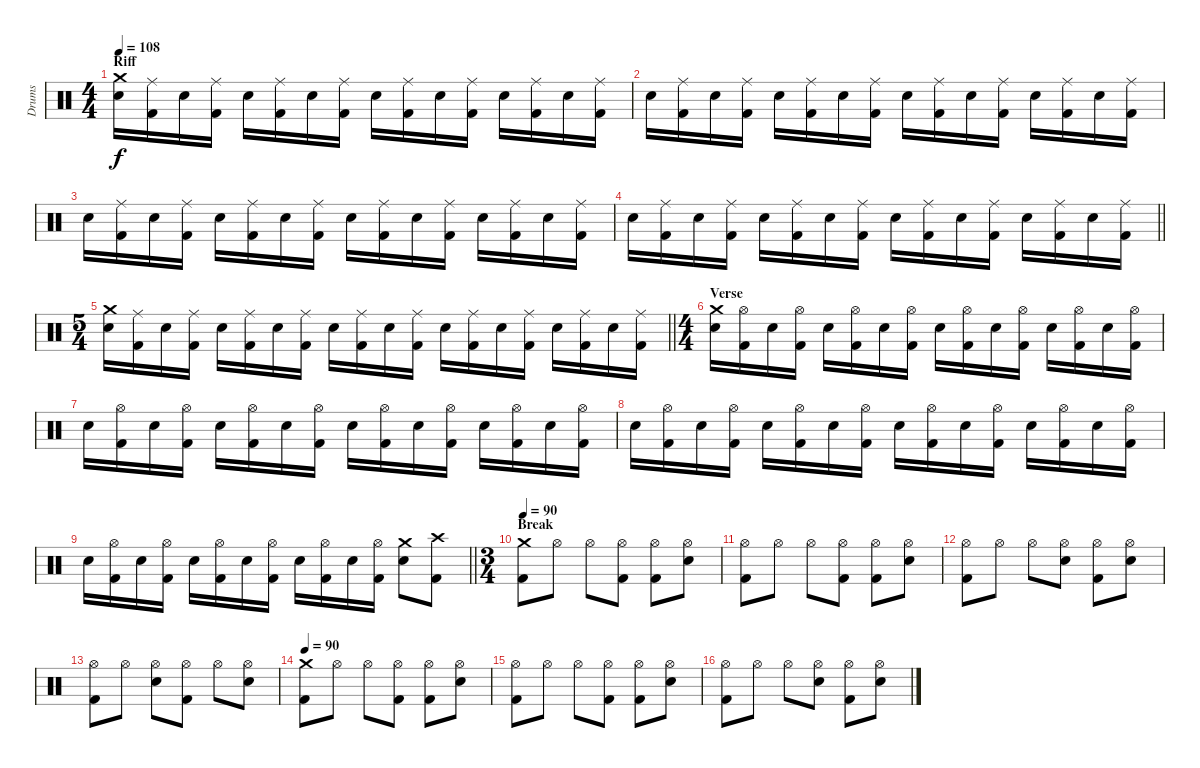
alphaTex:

\track ("Drums" "Drums") {instrument percussion}
\staff {score}
\articulation defaults
\ts (4 4)
\section ("" "Riff")
\tempo 108
\clef neutral
\ks c
("Crash medium (hit)" "Electric Snare (hit)").16{dy f} ("Ride (middle)" "Kick (hit) 2").16 "Electric Snare (hit)".16 ("Ride (middle)" "Kick (hit) 2").16 "Electric Snare (hit)".16 ("Ride (middle)" "Kick (hit) 2").16 "Electric Snare (hit)".16 ("Ride (middle)" "Kick (hit) 2").16 "Electric Snare (hit)".16 ("Ride (middle)" "Kick (hit) 2").16 "Electric Snare (hit)".16 ("Ride (middle)" "Kick (hit) 2").16 "Electric Snare (hit)".16 ("Ride (middle)" "Kick (hit) 2").16 "Electric Snare (hit)".16 ("Ride (middle)" "Kick (hit) 2").16 |
"Electric Snare (hit)".16 ("Ride (middle)" "Kick (hit) 2").16 "Electric Snare (hit)".16 ("Ride (middle)" "Kick (hit) 2").16 "Electric Snare (hit)".16 ("Ride (middle)" "Kick (hit) 2").16 "Electric Snare (hit)".16 ("Ride (middle)" "Kick (hit) 2").16 "Electric Snare (hit)".16 ("Ride (middle)" "Kick (hit) 2").16 "Electric Snare (hit)".16 ("Ride (middle)" "Kick (hit) 2").16 "Electric Snare (hit)".16 ("Ride (middle)" "Kick (hit) 2").16 "Electric Snare (hit)".16 ("Ride (middle)" "Kick (hit) 2").16 |
"Electric Snare (hit)".16 ("Ride (middle)" "Kick (hit) 2").16 "Electric Snare (hit)".16 ("Ride (middle)" "Kick (hit) 2").16 "Electric Snare (hit)".16 ("Ride (middle)" "Kick (hit) 2").16 "Electric Snare (hit)".16 ("Ride (middle)" "Kick (hit) 2").16 "Electric Snare (hit)".16 ("Ride (middle)" "Kick (hit) 2").16 "Electric Snare (hit)".16 ("Ride (middle)" "Kick (hit) 2").16 "Electric Snare (hit)".16 ("Ride (middle)" "Kick (hit) 2").16 "Electric Snare (hit)".16 ("Ride (middle)" "Kick (hit) 2").16 |
\barLineRight lightlight "Electric Snare (hit)".16
("Ride (middle)" "Kick (hit) 2").16 "Electric Snare (hit)".16 ("Ride (middle)" "Kick (hit) 2").16 "Electric Snare (hit)".16 ("Ride (middle)" "Kick (hit) 2").16 "Electric Snare (hit)".16 ("Ride (middle)" "Kick (hit) 2").16 "Electric Snare (hit)".16 ("Ride (middle)" "Kick (hit) 2").16 "Electric Snare (hit)".16 ("Ride (middle)" "Kick (hit) 2").16 "Electric Snare (hit)".16 ("Ride (middle)" "Kick (hit) 2").16 "Electric Snare (hit)".16 ("Ride (middle)" "Kick (hit) 2").16 |
\ts (5 4)
\barLineRight lightlight
("Crash medium (hit)" "Electric Snare (hit)").16 ("Ride (middle)" "Kick (hit) 2").16 "Electric Snare (hit)".16 ("Ride (middle)" "Kick (hit) 2").16 "Electric Snare (hit)".16 ("Ride (middle)" "Kick (hit) 2").16 "Electric Snare (hit)".16 ("Ride (middle)" "Kick (hit) 2").16 "Electric Snare (hit)".16 ("Ride (middle)" "Kick (hit) 2").16 "Electric Snare (hit)".16 ("Ride (middle)" "Kick (hit) 2").16 "Electric Snare (hit)".16 ("Ride (middle)" "Kick (hit) 2").16 "Electric Snare (hit)".16 ("Ride (middle)" "Kick (hit) 2").16 "Electric Snare (hit)".16 ("Ride (middle)" "Kick (hit) 2").16 "Electric Snare (hit)".16 ("Ride (middle)" "Kick (hit) 2").16 |
\ts (4 4)
\section ("" "Verse")
("Crash medium (hit)" "Electric Snare (hit)").16 ("Hi-Hat (open)" "Kick (hit) 2").16 "Electric Snare (hit)".16 ("Hi-Hat (open)" "Kick (hit) 2").16 "Electric Snare (hit)".16 ("Hi-Hat (open)" "Kick (hit) 2").16 "Electric Snare (hit)".16 ("Hi-Hat (open)" "Kick (hit) 2").16 "Electric Snare (hit)".16 ("Hi-Hat (open)" "Kick (hit) 2").16 "Electric Snare (hit)".16 ("Hi-Hat (open)" "Kick (hit) 2").16 "Electric Snare (hit)".16 ("Hi-Hat (open)" "Kick (hit) 2").16 "Electric Snare (hit)".16 ("Hi-Hat (open)" "Kick (hit) 2").16 |
"Electric Snare (hit)".16 ("Hi-Hat (open)" "Kick (hit) 2").16 "Electric Snare (hit)".16 ("Hi-Hat (open)" "Kick (hit) 2").16 "Electric Snare (hit)".16 ("Hi-Hat (open)" "Kick (hit) 2").16 "Electric Snare (hit)".16 ("Hi-Hat (open)" "Kick (hit) 2").16 "Electric Snare (hit)".16 ("Hi-Hat (open)" "Kick (hit) 2").16 "Electric Snare (hit)".16 ("Hi-Hat (open)" "Kick (hit) 2").16 "Electric Snare (hit)".16 ("Hi-Hat (open)" "Kick (hit) 2").16 "Electric Snare (hit)".16 ("Hi-Hat (open)" "Kick (hit) 2").16 |
"Electric Snare (hit)".16 ("Hi-Hat (open)" "Kick (hit) 2").16 "Electric Snare (hit)".16 ("Hi-Hat (open)" "Kick (hit) 2").16 "Electric Snare (hit)".16 ("Hi-Hat (open)" "Kick (hit) 2").16 "Electric Snare (hit)".16 ("Hi-Hat (open)" "Kick (hit) 2").16 "Electric Snare (hit)".16 ("Hi-Hat (open)" "Kick (hit) 2").16 "Electric Snare (hit)".16 ("Hi-Hat (open)" "Kick (hit) 2").16 "Electric Snare (hit)".16 ("Hi-Hat (open)" "Kick (hit) 2").16 "Electric Snare (hit)".16 ("Hi-Hat (open)" "Kick (hit) 2").16 |
\barLineRight lightlight "Electric Snare (hit)".16
("Hi-Hat (open)" "Kick (hit) 2").16 "Electric Snare (hit)".16 ("Hi-Hat (open)" "Kick (hit) 2").16 "Electric Snare (hit)".16 ("Hi-Hat (open)" "Kick (hit) 2").16 "Electric Snare (hit)".16 ("Hi-Hat (open)" "Kick (hit) 2").16 "Electric Snare (hit)".16 ("Hi-Hat (open)" "Kick (hit) 2").16 "Electric Snare (hit)".16 ("Hi-Hat (open)" "Kick (hit) 2").16 ("Crash medium (hit)" "Electric Snare (hit)").8 ("Crash high (hit)" "Kick (hit) 2").8 |
\ts (3 4)
\section ("" "Break")
\tempo 90
("Crash medium (hit)" "Kick (hit) 2").8 "Hi-Hat (open)".8 "Hi-Hat (open)".8 ("Hi-Hat (open)" "Kick (hit) 2").8 ("Hi-Hat (open)" "Kick (hit) 2").8 ("Hi-Hat (open)" "Electric Snare (hit)").8 |
("Hi-Hat (open)" "Kick (hit) 2").8 "Hi-Hat (open)".8 "Hi-Hat (open)".8 ("Hi-Hat (open)" "Kick (hit) 2").8 ("Hi-Hat (open)" "Kick (hit) 2").8 ("Hi-Hat (open)" "Electric Snare (hit)").8 |
("Hi-Hat (open)" "Kick (hit) 2").8 "Hi-Hat (open)".8 "Hi-Hat (open)".8 ("Hi-Hat (open)" "Electric Snare (hit)").8 ("Hi-Hat (open)" "Kick (hit) 2").8 ("Hi-Hat (open)" "Electric Snare (hit)").8 |
("Hi-Hat (open)" "Kick (hit) 2").8 "Hi-Hat (open)".8 ("Hi-Hat (open)" "Electric Snare (hit)").8 ("Hi-Hat (open)" "Kick (hit) 2").8 "Hi-Hat (open)".8 ("Hi-Hat (open)" "Electric Snare (hit)").8 |
\tempo 90
("Crash medium (hit)" "Kick (hit) 2").8 "Hi-Hat (open)".8 "Hi-Hat (open)".8 ("Hi-Hat (open)" "Kick (hit) 2").8 ("Hi-Hat (open)" "Kick (hit) 2").8 ("Hi-Hat (open)" "Electric Snare (hit)").8 |
("Hi-Hat (open)" "Kick (hit) 2").8 "Hi-Hat (open)".8 "Hi-Hat (open)".8 ("Hi-Hat (open)" "Kick (hit) 2").8 ("Hi-Hat (open)" "Kick (hit) 2").8 ("Hi-Hat (open)" "Electric Snare (hit)").8 |
("Hi-Hat (open)" "Kick (hit) 2").8 "Hi-Hat (open)".8 "Hi-Hat (open)".8 ("Hi-Hat (open)" "Electric Snare (hit)").8 ("Hi-Hat (open)" "Kick (hit) 2").8 ("Hi-Hat (open)" "Electric Snare (hit)").8
